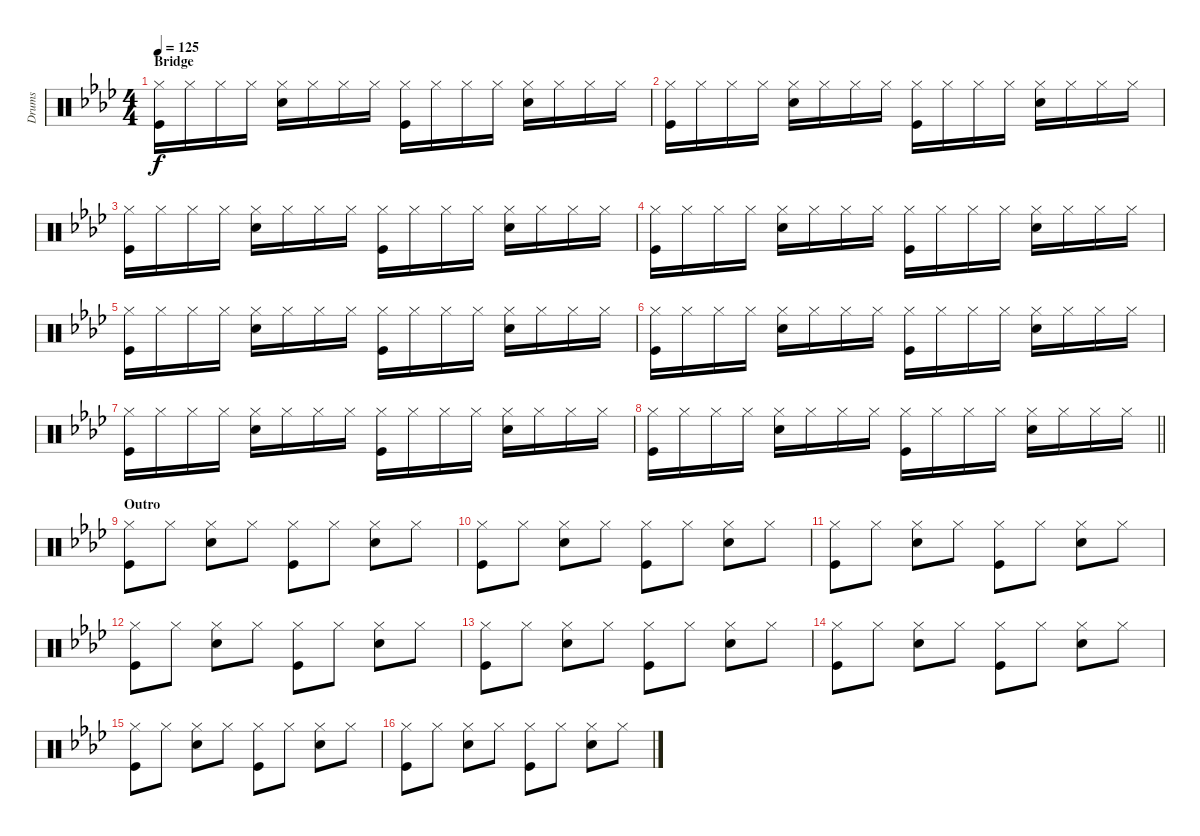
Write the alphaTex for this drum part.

\track ("Drums" "Drums") {instrument percussion}
\staff {score}
\articulation defaults
\ts (4 4)
\section ("" "Bridge")
\tempo 125
\clef neutral
\ks ab
("Kick (hit)" "Hi-Hat (closed)").16{dy f} "Hi-Hat (closed)".16 "Hi-Hat (closed)".16 "Hi-Hat (closed)".16 ("Electric Snare (hit)" "Hi-Hat (closed)").16 "Hi-Hat (closed)".16 "Hi-Hat (closed)".16 "Hi-Hat (closed)".16 ("Kick (hit)" "Hi-Hat (closed)").16 "Hi-Hat (closed)".16 "Hi-Hat (closed)".16 "Hi-Hat (closed)".16 ("Electric Snare (hit)" "Hi-Hat (closed)").16 "Hi-Hat (closed)".16 "Hi-Hat (closed)".16 "Hi-Hat (closed)".16 |
("Kick (hit)" "Hi-Hat (closed)").16 "Hi-Hat (closed)".16 "Hi-Hat (closed)".16 "Hi-Hat (closed)".16 ("Electric Snare (hit)" "Hi-Hat (closed)").16 "Hi-Hat (closed)".16 "Hi-Hat (closed)".16 "Hi-Hat (closed)".16 ("Kick (hit)" "Hi-Hat (closed)").16 "Hi-Hat (closed)".16 "Hi-Hat (closed)".16 "Hi-Hat (closed)".16 ("Electric Snare (hit)" "Hi-Hat (closed)").16 "Hi-Hat (closed)".16 "Hi-Hat (closed)".16 "Hi-Hat (closed)".16 |
("Kick (hit)" "Hi-Hat (closed)").16 "Hi-Hat (closed)".16 "Hi-Hat (closed)".16 "Hi-Hat (closed)".16 ("Electric Snare (hit)" "Hi-Hat (closed)").16 "Hi-Hat (closed)".16 "Hi-Hat (closed)".16 "Hi-Hat (closed)".16 ("Kick (hit)" "Hi-Hat (closed)").16 "Hi-Hat (closed)".16 "Hi-Hat (closed)".16 "Hi-Hat (closed)".16 ("Electric Snare (hit)" "Hi-Hat (closed)").16 "Hi-Hat (closed)".16 "Hi-Hat (closed)".16 "Hi-Hat (closed)".16 |
("Kick (hit)" "Hi-Hat (closed)").16 "Hi-Hat (closed)".16 "Hi-Hat (closed)".16 "Hi-Hat (closed)".16 ("Electric Snare (hit)" "Hi-Hat (closed)").16 "Hi-Hat (closed)".16 "Hi-Hat (closed)".16 "Hi-Hat (closed)".16 ("Kick (hit)" "Hi-Hat (closed)").16 "Hi-Hat (closed)".16 "Hi-Hat (closed)".16 "Hi-Hat (closed)".16 ("Electric Snare (hit)" "Hi-Hat (closed)").16 "Hi-Hat (closed)".16 "Hi-Hat (closed)".16 "Hi-Hat (closed)".16 |
("Kick (hit)" "Hi-Hat (closed)").16 "Hi-Hat (closed)".16 "Hi-Hat (closed)".16 "Hi-Hat (closed)".16 ("Electric Snare (hit)" "Hi-Hat (closed)").16 "Hi-Hat (closed)".16 "Hi-Hat (closed)".16 "Hi-Hat (closed)".16 ("Kick (hit)" "Hi-Hat (closed)").16 "Hi-Hat (closed)".16 "Hi-Hat (closed)".16 "Hi-Hat (closed)".16 ("Electric Snare (hit)" "Hi-Hat (closed)").16 "Hi-Hat (closed)".16 "Hi-Hat (closed)".16 "Hi-Hat (closed)".16 |
("Kick (hit)" "Hi-Hat (closed)").16 "Hi-Hat (closed)".16 "Hi-Hat (closed)".16 "Hi-Hat (closed)".16 ("Electric Snare (hit)" "Hi-Hat (closed)").16 "Hi-Hat (closed)".16 "Hi-Hat (closed)".16 "Hi-Hat (closed)".16 ("Kick (hit)" "Hi-Hat (closed)").16 "Hi-Hat (closed)".16 "Hi-Hat (closed)".16 "Hi-Hat (closed)".16 ("Electric Snare (hit)" "Hi-Hat (closed)").16 "Hi-Hat (closed)".16 "Hi-Hat (closed)".16 "Hi-Hat (closed)".16 |
("Kick (hit)" "Hi-Hat (closed)").16 "Hi-Hat (closed)".16 "Hi-Hat (closed)".16 "Hi-Hat (closed)".16 ("Electric Snare (hit)" "Hi-Hat (closed)").16 "Hi-Hat (closed)".16 "Hi-Hat (closed)".16 "Hi-Hat (closed)".16 ("Kick (hit)" "Hi-Hat (closed)").16 "Hi-Hat (closed)".16 "Hi-Hat (closed)".16 "Hi-Hat (closed)".16 ("Electric Snare (hit)" "Hi-Hat (closed)").16 "Hi-Hat (closed)".16 "Hi-Hat (closed)".16 "Hi-Hat (closed)".16 |
\barLineRight lightlight
("Kick (hit)" "Hi-Hat (closed)").16 "Hi-Hat (closed)".16 "Hi-Hat (closed)".16 "Hi-Hat (closed)".16 ("Electric Snare (hit)" "Hi-Hat (closed)").16 "Hi-Hat (closed)".16 "Hi-Hat (closed)".16 "Hi-Hat (closed)".16 ("Kick (hit)" "Hi-Hat (closed)").16 "Hi-Hat (closed)".16 "Hi-Hat (closed)".16 "Hi-Hat (closed)".16 ("Electric Snare (hit)" "Hi-Hat (closed)").16 "Hi-Hat (closed)".16 "Hi-Hat (closed)".16 "Hi-Hat (closed)".16 |
\section ("" "Outro")
("Kick (hit)" "Hi-Hat (closed)").8 "Hi-Hat (closed)".8 ("Electric Snare (hit)" "Hi-Hat (closed)").8 "Hi-Hat (closed)".8 ("Kick (hit)" "Hi-Hat (closed)").8 "Hi-Hat (closed)".8 ("Electric Snare (hit)" "Hi-Hat (closed)").8 "Hi-Hat (closed)".8 |
("Kick (hit)" "Hi-Hat (closed)").8 "Hi-Hat (closed)".8 ("Electric Snare (hit)" "Hi-Hat (closed)").8 "Hi-Hat (closed)".8 ("Kick (hit)" "Hi-Hat (closed)").8 "Hi-Hat (closed)".8 ("Electric Snare (hit)" "Hi-Hat (closed)").8 "Hi-Hat (closed)".8 |
("Kick (hit)" "Hi-Hat (closed)").8 "Hi-Hat (closed)".8 ("Electric Snare (hit)" "Hi-Hat (closed)").8 "Hi-Hat (closed)".8 ("Kick (hit)" "Hi-Hat (closed)").8 "Hi-Hat (closed)".8 ("Electric Snare (hit)" "Hi-Hat (closed)").8 "Hi-Hat (closed)".8 |
("Kick (hit)" "Hi-Hat (closed)").8 "Hi-Hat (closed)".8 ("Electric Snare (hit)" "Hi-Hat (closed)").8 "Hi-Hat (closed)".8 ("Kick (hit)" "Hi-Hat (closed)").8 "Hi-Hat (closed)".8 ("Electric Snare (hit)" "Hi-Hat (closed)").8 "Hi-Hat (closed)".8 |
("Kick (hit)" "Hi-Hat (closed)").8 "Hi-Hat (closed)".8 ("Electric Snare (hit)" "Hi-Hat (closed)").8 "Hi-Hat (closed)".8 ("Kick (hit)" "Hi-Hat (closed)").8 "Hi-Hat (closed)".8 ("Electric Snare (hit)" "Hi-Hat (closed)").8 "Hi-Hat (closed)".8 |
("Kick (hit)" "Hi-Hat (closed)").8 "Hi-Hat (closed)".8 ("Electric Snare (hit)" "Hi-Hat (closed)").8 "Hi-Hat (closed)".8 ("Kick (hit)" "Hi-Hat (closed)").8 "Hi-Hat (closed)".8 ("Electric Snare (hit)" "Hi-Hat (closed)").8 "Hi-Hat (closed)".8 |
("Kick (hit)" "Hi-Hat (closed)").8 "Hi-Hat (closed)".8 ("Electric Snare (hit)" "Hi-Hat (closed)").8 "Hi-Hat (closed)".8 ("Kick (hit)" "Hi-Hat (closed)").8 "Hi-Hat (closed)".8 ("Electric Snare (hit)" "Hi-Hat (closed)").8 "Hi-Hat (closed)".8 |
("Kick (hit)" "Hi-Hat (closed)").8 "Hi-Hat (closed)".8 ("Electric Snare (hit)" "Hi-Hat (closed)").8 "Hi-Hat (closed)".8 ("Kick (hit)" "Hi-Hat (closed)").8 "Hi-Hat (closed)".8 ("Electric Snare (hit)" "Hi-Hat (closed)").8 "Hi-Hat (closed)".8
